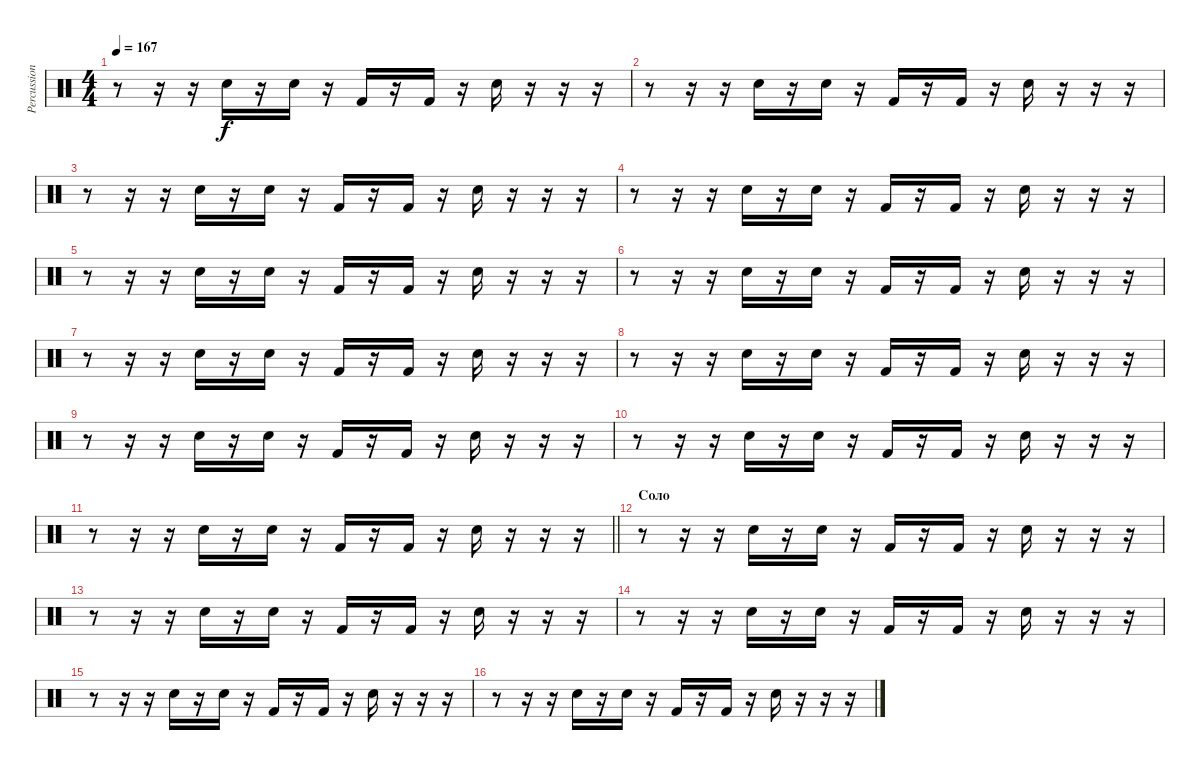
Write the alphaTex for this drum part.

\track ("Percussion 1" "Percussion") {instrument percussion}
\staff {score}
\articulation defaults
\ts (4 4)
\tempo 167
\clef neutral
\ks c
r.8{dy f} r.16 r.16 "Electric Snare (hit)".16 r.16 "Electric Snare (hit)".16 r.16 "Kick (hit) 2".16 r.16 "Kick (hit) 2".16 r.16 "Snare (hit) 2".16 r.16 r.16 r.16 |
r.8 r.16 r.16 "Electric Snare (hit)".16 r.16 "Electric Snare (hit)".16 r.16 "Kick (hit) 2".16 r.16 "Kick (hit) 2".16 r.16 "Snare (hit) 2".16 r.16 r.16 r.16 |
r.8 r.16 r.16 "Electric Snare (hit)".16 r.16 "Electric Snare (hit)".16 r.16 "Kick (hit) 2".16 r.16 "Kick (hit) 2".16 r.16 "Snare (hit) 2".16 r.16 r.16 r.16 |
r.8 r.16 r.16 "Electric Snare (hit)".16 r.16 "Electric Snare (hit)".16 r.16 "Kick (hit) 2".16 r.16 "Kick (hit) 2".16 r.16 "Snare (hit) 2".16 r.16 r.16 r.16 |
r.8 r.16 r.16 "Electric Snare (hit)".16 r.16 "Electric Snare (hit)".16 r.16 "Kick (hit) 2".16 r.16 "Kick (hit) 2".16 r.16 "Snare (hit) 2".16 r.16 r.16 r.16 |
r.8 r.16 r.16 "Electric Snare (hit)".16 r.16 "Electric Snare (hit)".16 r.16 "Kick (hit) 2".16 r.16 "Kick (hit) 2".16 r.16 "Snare (hit) 2".16 r.16 r.16 r.16 |
r.8 r.16 r.16 "Electric Snare (hit)".16 r.16 "Electric Snare (hit)".16 r.16 "Kick (hit) 2".16 r.16 "Kick (hit) 2".16 r.16 "Snare (hit) 2".16 r.16 r.16 r.16 |
r.8 r.16 r.16 "Electric Snare (hit)".16 r.16 "Electric Snare (hit)".16 r.16 "Kick (hit) 2".16 r.16 "Kick (hit) 2".16 r.16 "Snare (hit) 2".16 r.16 r.16 r.16 |
r.8 r.16 r.16 "Electric Snare (hit)".16 r.16 "Electric Snare (hit)".16 r.16 "Kick (hit) 2".16 r.16 "Kick (hit) 2".16 r.16 "Snare (hit) 2".16 r.16 r.16 r.16 |
r.8 r.16 r.16 "Electric Snare (hit)".16 r.16 "Electric Snare (hit)".16 r.16 "Kick (hit) 2".16 r.16 "Kick (hit) 2".16 r.16 "Snare (hit) 2".16 r.16 r.16 r.16 |
\barLineRight lightlight
r.8 r.16 r.16 "Electric Snare (hit)".16 r.16 "Electric Snare (hit)".16 r.16 "Kick (hit) 2".16 r.16 "Kick (hit) 2".16 r.16 "Snare (hit) 2".16 r.16 r.16 r.16 |
\section ("" "Соло")
r.8 r.16 r.16 "Electric Snare (hit)".16 r.16 "Electric Snare (hit)".16 r.16 "Kick (hit) 2".16 r.16 "Kick (hit) 2".16 r.16 "Snare (hit) 2".16 r.16 r.16 r.16 |
r.8 r.16 r.16 "Electric Snare (hit)".16 r.16 "Electric Snare (hit)".16 r.16 "Kick (hit) 2".16 r.16 "Kick (hit) 2".16 r.16 "Snare (hit) 2".16 r.16 r.16 r.16 |
r.8 r.16 r.16 "Electric Snare (hit)".16 r.16 "Electric Snare (hit)".16 r.16 "Kick (hit) 2".16 r.16 "Kick (hit) 2".16 r.16 "Snare (hit) 2".16 r.16 r.16 r.16 |
r.8 r.16 r.16 "Electric Snare (hit)".16 r.16 "Electric Snare (hit)".16 r.16 "Kick (hit) 2".16 r.16 "Kick (hit) 2".16 r.16 "Snare (hit) 2".16 r.16 r.16 r.16 |
r.8 r.16 r.16 "Electric Snare (hit)".16 r.16 "Electric Snare (hit)".16 r.16 "Kick (hit) 2".16 r.16 "Kick (hit) 2".16 r.16 "Snare (hit) 2".16 r.16 r.16 r.16
